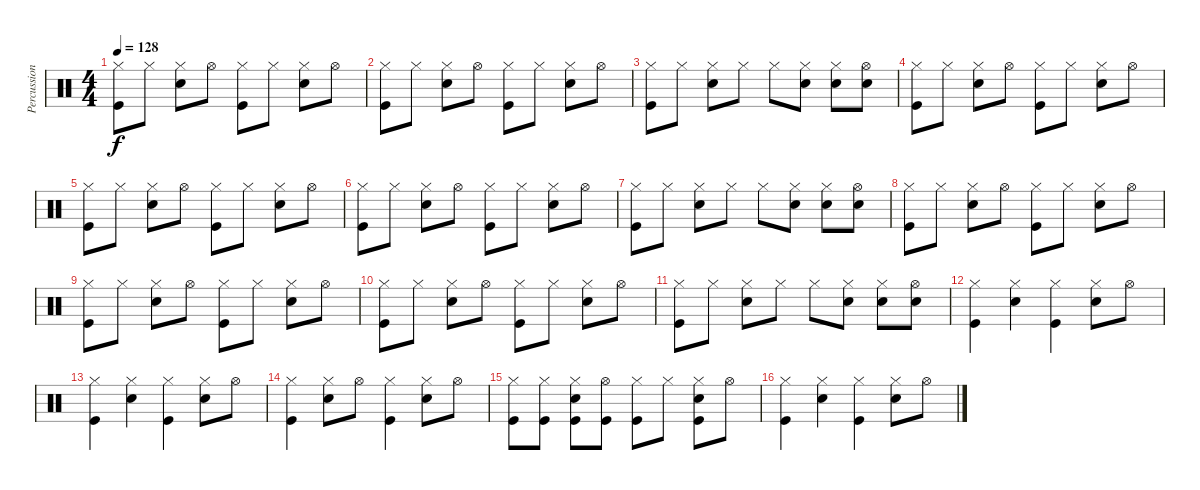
\track ("Percussion" "Percussion") {instrument percussion}
\staff {score}
\articulation defaults
\ts (4 4)
\tempo 128
\clef neutral
\ks c
("Hi-Hat (closed)" "Kick (hit)").8{dy f} "Hi-Hat (closed)".8 ("Hi-Hat (closed)" "Snare (hit) 2").8 "Hi-Hat (open)".8 ("Hi-Hat (closed)" "Kick (hit)").8 "Hi-Hat (closed)".8 ("Hi-Hat (closed)" "Snare (hit) 2").8 "Hi-Hat (open)".8 |
("Hi-Hat (closed)" "Kick (hit)").8 "Hi-Hat (closed)".8 ("Hi-Hat (closed)" "Snare (hit) 2").8 "Hi-Hat (open)".8 ("Hi-Hat (closed)" "Kick (hit)").8 "Hi-Hat (closed)".8 ("Hi-Hat (closed)" "Snare (hit) 2").8 "Hi-Hat (open)".8 |
("Hi-Hat (closed)" "Kick (hit)").8 "Hi-Hat (closed)".8 ("Hi-Hat (closed)" "Snare (hit) 2").8 "Hi-Hat (closed)".8 "Hi-Hat (closed)".8 ("Hi-Hat (closed)" "Snare (hit) 2").8 ("Hi-Hat (closed)" "Snare (hit) 2").8 ("Hi-Hat (open)" "Snare (hit) 2").8 |
("Hi-Hat (closed)" "Kick (hit)").8 "Hi-Hat (closed)".8 ("Hi-Hat (closed)" "Snare (hit) 2").8 "Hi-Hat (open)".8 ("Hi-Hat (closed)" "Kick (hit)").8 "Hi-Hat (closed)".8 ("Hi-Hat (closed)" "Snare (hit) 2").8 "Hi-Hat (open)".8 |
("Hi-Hat (closed)" "Kick (hit)").8 "Hi-Hat (closed)".8 ("Hi-Hat (closed)" "Snare (hit) 2").8 "Hi-Hat (open)".8 ("Hi-Hat (closed)" "Kick (hit)").8 "Hi-Hat (closed)".8 ("Hi-Hat (closed)" "Snare (hit) 2").8 "Hi-Hat (open)".8 |
("Hi-Hat (closed)" "Kick (hit)").8 "Hi-Hat (closed)".8 ("Hi-Hat (closed)" "Snare (hit) 2").8 "Hi-Hat (open)".8 ("Hi-Hat (closed)" "Kick (hit)").8 "Hi-Hat (closed)".8 ("Hi-Hat (closed)" "Snare (hit) 2").8 "Hi-Hat (open)".8 |
("Hi-Hat (closed)" "Kick (hit)").8 "Hi-Hat (closed)".8 ("Hi-Hat (closed)" "Snare (hit) 2").8 "Hi-Hat (closed)".8 "Hi-Hat (closed)".8 ("Hi-Hat (closed)" "Snare (hit) 2").8 ("Hi-Hat (closed)" "Snare (hit) 2").8 ("Hi-Hat (open)" "Snare (hit) 2").8 |
("Hi-Hat (closed)" "Kick (hit)").8 "Hi-Hat (closed)".8 ("Hi-Hat (closed)" "Snare (hit) 2").8 "Hi-Hat (open)".8 ("Hi-Hat (closed)" "Kick (hit)").8 "Hi-Hat (closed)".8 ("Hi-Hat (closed)" "Snare (hit) 2").8 "Hi-Hat (open)".8 |
("Hi-Hat (closed)" "Kick (hit)").8 "Hi-Hat (closed)".8 ("Hi-Hat (closed)" "Snare (hit) 2").8 "Hi-Hat (open)".8 ("Hi-Hat (closed)" "Kick (hit)").8 "Hi-Hat (closed)".8 ("Hi-Hat (closed)" "Snare (hit) 2").8 "Hi-Hat (open)".8 |
("Hi-Hat (closed)" "Kick (hit)").8 "Hi-Hat (closed)".8 ("Hi-Hat (closed)" "Snare (hit) 2").8 "Hi-Hat (open)".8 ("Hi-Hat (closed)" "Kick (hit)").8 "Hi-Hat (closed)".8 ("Hi-Hat (closed)" "Snare (hit) 2").8 "Hi-Hat (open)".8 |
("Hi-Hat (closed)" "Kick (hit)").8 "Hi-Hat (closed)".8 ("Hi-Hat (closed)" "Snare (hit) 2").8 "Hi-Hat (closed)".8 "Hi-Hat (closed)".8 ("Hi-Hat (closed)" "Snare (hit) 2").8 ("Hi-Hat (closed)" "Snare (hit) 2").8 ("Hi-Hat (open)" "Snare (hit) 2").8 |
("Hi-Hat (closed)" "Kick (hit)").4 ("Hi-Hat (closed)" "Snare (hit) 2").4 ("Hi-Hat (closed)" "Kick (hit)").4 ("Hi-Hat (closed)" "Snare (hit) 2").8 "Hi-Hat (open)".8 |
("Hi-Hat (closed)" "Kick (hit)").4 ("Hi-Hat (closed)" "Snare (hit) 2").4 ("Hi-Hat (closed)" "Kick (hit)").4 ("Hi-Hat (closed)" "Snare (hit) 2").8 "Hi-Hat (open)".8 |
("Hi-Hat (closed)" "Kick (hit)").4 ("Hi-Hat (closed)" "Snare (hit) 2").8 "Hi-Hat (open)".8 ("Hi-Hat (closed)" "Kick (hit)").4 ("Hi-Hat (closed)" "Snare (hit) 2").8 "Hi-Hat (open)".8 |
("Hi-Hat (closed)" "Kick (hit)").8 ("Hi-Hat (closed)" "Kick (hit)").8 ("Hi-Hat (closed)" "Kick (hit)" "Snare (hit) 2").8 ("Hi-Hat (open)" "Kick (hit)").8 ("Hi-Hat (closed)" "Kick (hit)").8 "Hi-Hat (closed)".8 ("Hi-Hat (closed)" "Kick (hit)" "Snare (hit) 2").8 "Hi-Hat (open)".8 |
("Hi-Hat (closed)" "Kick (hit)").4 ("Hi-Hat (closed)" "Snare (hit) 2").4 ("Hi-Hat (closed)" "Kick (hit)").4 ("Hi-Hat (closed)" "Snare (hit) 2").8 "Hi-Hat (open)".8
